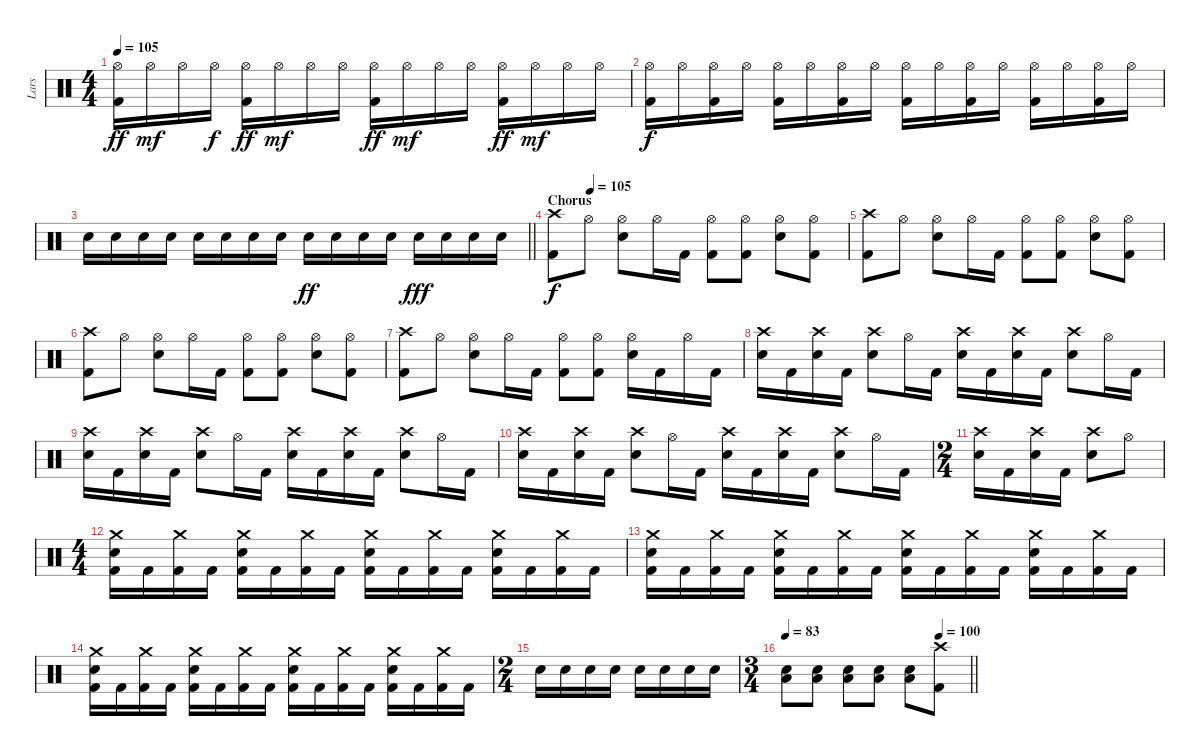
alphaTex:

\track ("Lars" "Lars") {instrument percussion}
\staff {score}
\articulation defaults
\ts (4 4)
\tempo 105
\clef neutral
\ks c
("Hi-Hat (open)" "Kick (hit) 2").16{dy ff} "Hi-Hat (open)".16{dy mf} "Hi-Hat (open)".16 "Hi-Hat (open)".16{dy f} ("Hi-Hat (open)" "Kick (hit) 2").16{dy ff} "Hi-Hat (open)".16{dy mf} "Hi-Hat (open)".16 "Hi-Hat (open)".16 ("Hi-Hat (open)" "Kick (hit) 2").16{dy ff} "Hi-Hat (open)".16{dy mf} "Hi-Hat (open)".16 "Hi-Hat (open)".16 ("Hi-Hat (open)" "Kick (hit) 2").16{dy ff} "Hi-Hat (open)".16{dy mf} "Hi-Hat (open)".16 "Hi-Hat (open)".16 |
("Hi-Hat (open)" "Kick (hit) 2").16{dy f} "Hi-Hat (open)".16 ("Hi-Hat (open)" "Kick (hit) 2").16 "Hi-Hat (open)".16 ("Hi-Hat (open)" "Kick (hit) 2").16 "Hi-Hat (open)".16 ("Hi-Hat (open)" "Kick (hit) 2").16 "Hi-Hat (open)".16 ("Hi-Hat (open)" "Kick (hit) 2").16 "Hi-Hat (open)".16 ("Hi-Hat (open)" "Kick (hit) 2").16 "Hi-Hat (open)".16 ("Hi-Hat (open)" "Kick (hit) 2").16 "Hi-Hat (open)".16 ("Hi-Hat (open)" "Kick (hit) 2").16 "Hi-Hat (open)".16 |
\barLineRight lightlight "Electric Snare (hit)".16 "Electric Snare (hit)".16 "Electric Snare (hit)".16 "Electric Snare (hit)".16 "Electric Snare (hit)".16 "Electric Snare (hit)".16 "Electric Snare (hit)".16 "Electric Snare (hit)".16 "Electric Snare (hit)".16{dy ff} "Electric Snare (hit)".16 "Electric Snare (hit)".16 "Electric Snare (hit)".16 "Electric Snare (hit)".16{dy fff} "Electric Snare (hit)".16 "Electric Snare (hit)".16 "Electric Snare (hit)".16
|
\section ("" "Chorus")
\tempo (105 0.125)
("Crash high (hit)" "Kick (hit) 2").8{dy f} "Hi-Hat (open)".8 ("Hi-Hat (open)" "Electric Snare (hit)").8 "Hi-Hat (open)".16 "Kick (hit) 2".16 ("Hi-Hat (open)" "Kick (hit) 2").8 ("Hi-Hat (open)" "Kick (hit) 2").8 ("Hi-Hat (open)" "Electric Snare (hit)").8 ("Hi-Hat (open)" "Kick (hit) 2").8 |
("Crash high (hit)" "Kick (hit) 2").8 "Hi-Hat (open)".8 ("Hi-Hat (open)" "Electric Snare (hit)").8 "Hi-Hat (open)".16 "Kick (hit) 2".16 ("Hi-Hat (open)" "Kick (hit) 2").8 ("Hi-Hat (open)" "Kick (hit) 2").8 ("Hi-Hat (open)" "Electric Snare (hit)").8 ("Hi-Hat (open)" "Kick (hit) 2").8 |
("Crash high (hit)" "Kick (hit) 2").8 "Hi-Hat (open)".8 ("Hi-Hat (open)" "Electric Snare (hit)").8 "Hi-Hat (open)".16 "Kick (hit) 2".16 ("Hi-Hat (open)" "Kick (hit) 2").8 ("Hi-Hat (open)" "Kick (hit) 2").8 ("Hi-Hat (open)" "Electric Snare (hit)").8 ("Hi-Hat (open)" "Kick (hit) 2").8 |
("Crash high (hit)" "Kick (hit) 2").8 "Hi-Hat (open)".8 ("Hi-Hat (open)" "Electric Snare (hit)").8 "Hi-Hat (open)".16 "Kick (hit) 2".16 ("Hi-Hat (open)" "Kick (hit) 2").8 ("Hi-Hat (open)" "Kick (hit) 2").8 ("Hi-Hat (open)" "Electric Snare (hit)").16 "Kick (hit) 2".16 "Hi-Hat (open)".16 "Kick (hit) 2".16 |
("Crash high (hit)" "Electric Snare (hit)").16 "Kick (hit) 2".16 ("Crash high (hit)" "Electric Snare (hit)").16 "Kick (hit) 2".16 ("Crash high (hit)" "Electric Snare (hit)").8 "Hi-Hat (open)".16 "Kick (hit) 2".16 ("Crash high (hit)" "Electric Snare (hit)").16 "Kick (hit) 2".16 ("Crash high (hit)" "Electric Snare (hit)").16 "Kick (hit) 2".16 ("Crash high (hit)" "Electric Snare (hit)").8 "Hi-Hat (open)".16 "Kick (hit) 2".16 |
("Crash high (hit)" "Electric Snare (hit)").16 "Kick (hit) 2".16 ("Crash high (hit)" "Electric Snare (hit)").16 "Kick (hit) 2".16 ("Crash high (hit)" "Electric Snare (hit)").8 "Hi-Hat (open)".16 "Kick (hit) 2".16 ("Crash high (hit)" "Electric Snare (hit)").16 "Kick (hit) 2".16 ("Crash high (hit)" "Electric Snare (hit)").16 "Kick (hit) 2".16 ("Crash high (hit)" "Electric Snare (hit)").8 "Hi-Hat (open)".16 "Kick (hit) 2".16 |
("Crash high (hit)" "Electric Snare (hit)").16 "Kick (hit) 2".16 ("Crash high (hit)" "Electric Snare (hit)").16 "Kick (hit) 2".16 ("Crash high (hit)" "Electric Snare (hit)").8 "Hi-Hat (open)".16 "Kick (hit) 2".16 ("Crash high (hit)" "Electric Snare (hit)").16 "Kick (hit) 2".16 ("Crash high (hit)" "Electric Snare (hit)").16 "Kick (hit) 2".16 ("Crash high (hit)" "Electric Snare (hit)").8 "Hi-Hat (open)".16 "Kick (hit) 2".16 |
\ts (2 4)
("Crash high (hit)" "Electric Snare (hit)").16 "Kick (hit) 2".16 ("Crash high (hit)" "Electric Snare (hit)").16 "Kick (hit) 2".16 ("Crash high (hit)" "Electric Snare (hit)").8 "Hi-Hat (open)".8 |
\ts (4 4)
("Crash medium (hit)" "Electric Snare (hit)" "Kick (hit) 2").16 "Kick (hit) 2".16 ("Crash medium (hit)" "Kick (hit) 2").16 "Kick (hit) 2".16 ("Crash medium (hit)" "Electric Snare (hit)" "Kick (hit) 2").16 "Kick (hit) 2".16 ("Crash medium (hit)" "Kick (hit) 2").16 "Kick (hit) 2".16 ("Crash medium (hit)" "Electric Snare (hit)" "Kick (hit) 2").16 "Kick (hit) 2".16 ("Crash medium (hit)" "Kick (hit) 2").16 "Kick (hit) 2".16 ("Crash medium (hit)" "Electric Snare (hit)" "Kick (hit) 2").16 "Kick (hit) 2".16 ("Crash medium (hit)" "Kick (hit) 2").16 "Kick (hit) 2".16 |
("Crash medium (hit)" "Electric Snare (hit)" "Kick (hit) 2").16 "Kick (hit) 2".16 ("Crash medium (hit)" "Kick (hit) 2").16 "Kick (hit) 2".16 ("Crash medium (hit)" "Electric Snare (hit)" "Kick (hit) 2").16 "Kick (hit) 2".16 ("Crash medium (hit)" "Kick (hit) 2").16 "Kick (hit) 2".16 ("Crash medium (hit)" "Electric Snare (hit)" "Kick (hit) 2").16 "Kick (hit) 2".16 ("Crash medium (hit)" "Kick (hit) 2").16 "Kick (hit) 2".16 ("Crash medium (hit)" "Electric Snare (hit)" "Kick (hit) 2").16 "Kick (hit) 2".16 ("Crash medium (hit)" "Kick (hit) 2").16 "Kick (hit) 2".16 |
("Crash medium (hit)" "Electric Snare (hit)" "Kick (hit) 2").16 "Kick (hit) 2".16 ("Crash medium (hit)" "Kick (hit) 2").16 "Kick (hit) 2".16 ("Crash medium (hit)" "Electric Snare (hit)" "Kick (hit) 2").16 "Kick (hit) 2".16 ("Crash medium (hit)" "Kick (hit) 2").16 "Kick (hit) 2".16 ("Crash medium (hit)" "Electric Snare (hit)" "Kick (hit) 2").16 "Kick (hit) 2".16 ("Crash medium (hit)" "Kick (hit) 2").16 "Kick (hit) 2".16 ("Crash medium (hit)" "Electric Snare (hit)" "Kick (hit) 2").16 "Kick (hit) 2".16 ("Crash medium (hit)" "Kick (hit) 2").16 "Kick (hit) 2".16 |
\ts (2 4)
"Electric Snare (hit)".16 "Electric Snare (hit)".16 "Electric Snare (hit)".16 "Electric Snare (hit)".16 "Electric Snare (hit)".16 "Electric Snare (hit)".16 "Electric Snare (hit)".16 "Electric Snare (hit)".16 |
\ts (3 4)
\tempo 83
\tempo (100 0.8333333333333334)
\barLineRight lightlight
("Low Floor Tom (hit)" "Electric Snare (hit)").8 ("Low Floor Tom (hit)" "Electric Snare (hit)").8 ("Low Floor Tom (hit)" "Electric Snare (hit)").8 ("Low Floor Tom (hit)" "Electric Snare (hit)").8 ("Low Floor Tom (hit)" "Electric Snare (hit)").8 ("Crash high (hit)" "Kick (hit) 2").8
